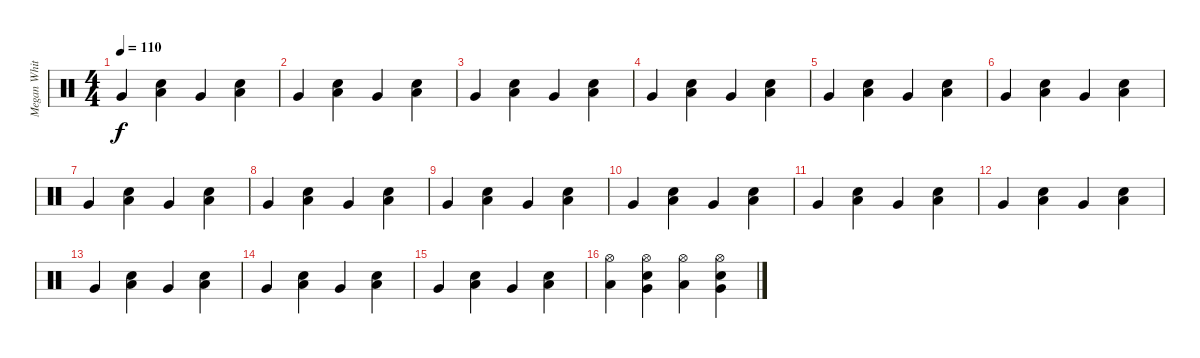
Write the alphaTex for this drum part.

\track ("Megan White (drums)" "Megan Whit") {instrument percussion}
\staff {score}
\articulation defaults
\ts (4 4)
\tempo 110
\clef neutral
\ks c "Very Low Tom (hit)".4{dy f}
("Electric Snare (hit)" "Low Floor Tom (hit)").4 "Very Low Tom (hit)".4 ("Electric Snare (hit)" "Low Floor Tom (hit)").4 |
"Very Low Tom (hit)".4 ("Electric Snare (hit)" "Low Floor Tom (hit)").4 "Very Low Tom (hit)".4 ("Electric Snare (hit)" "Low Floor Tom (hit)").4 |
"Very Low Tom (hit)".4 ("Electric Snare (hit)" "Low Floor Tom (hit)").4 "Very Low Tom (hit)".4 ("Electric Snare (hit)" "Low Floor Tom (hit)").4 |
"Very Low Tom (hit)".4 ("Electric Snare (hit)" "Low Floor Tom (hit)").4 "Very Low Tom (hit)".4 ("Electric Snare (hit)" "Low Floor Tom (hit)").4 |
"Very Low Tom (hit)".4 ("Electric Snare (hit)" "Low Floor Tom (hit)").4 "Very Low Tom (hit)".4 ("Electric Snare (hit)" "Low Floor Tom (hit)").4 |
"Very Low Tom (hit)".4 ("Electric Snare (hit)" "Low Floor Tom (hit)").4 "Very Low Tom (hit)".4 ("Electric Snare (hit)" "Low Floor Tom (hit)").4 |
"Very Low Tom (hit)".4 ("Electric Snare (hit)" "Low Floor Tom (hit)").4 "Very Low Tom (hit)".4 ("Electric Snare (hit)" "Low Floor Tom (hit)").4 |
"Very Low Tom (hit)".4 ("Electric Snare (hit)" "Low Floor Tom (hit)").4 "Very Low Tom (hit)".4 ("Electric Snare (hit)" "Low Floor Tom (hit)").4 |
"Very Low Tom (hit)".4 ("Electric Snare (hit)" "Low Floor Tom (hit)").4 "Very Low Tom (hit)".4 ("Electric Snare (hit)" "Low Floor Tom (hit)").4 |
"Very Low Tom (hit)".4 ("Electric Snare (hit)" "Low Floor Tom (hit)").4 "Very Low Tom (hit)".4 ("Electric Snare (hit)" "Low Floor Tom (hit)").4 |
"Very Low Tom (hit)".4 ("Electric Snare (hit)" "Low Floor Tom (hit)").4 "Very Low Tom (hit)".4 ("Electric Snare (hit)" "Low Floor Tom (hit)").4 |
"Very Low Tom (hit)".4 ("Electric Snare (hit)" "Low Floor Tom (hit)").4 "Very Low Tom (hit)".4 ("Electric Snare (hit)" "Low Floor Tom (hit)").4 |
"Very Low Tom (hit)".4 ("Electric Snare (hit)" "Low Floor Tom (hit)").4 "Very Low Tom (hit)".4 ("Electric Snare (hit)" "Low Floor Tom (hit)").4 |
"Very Low Tom (hit)".4 ("Electric Snare (hit)" "Low Floor Tom (hit)").4 "Very Low Tom (hit)".4 ("Electric Snare (hit)" "Low Floor Tom (hit)").4 |
"Very Low Tom (hit)".4 ("Electric Snare (hit)" "Low Floor Tom (hit)").4 "Very Low Tom (hit)".4 ("Electric Snare (hit)" "Low Floor Tom (hit)").4 |
("Hi-Hat (open)" "Low Floor Tom (hit)").4 ("Hi-Hat (open)" "Electric Snare (hit)" "Very Low Tom (hit)").4 ("Hi-Hat (open)" "Low Floor Tom (hit)").4 ("Hi-Hat (open)" "Electric Snare (hit)" "Very Low Tom (hit)").4
